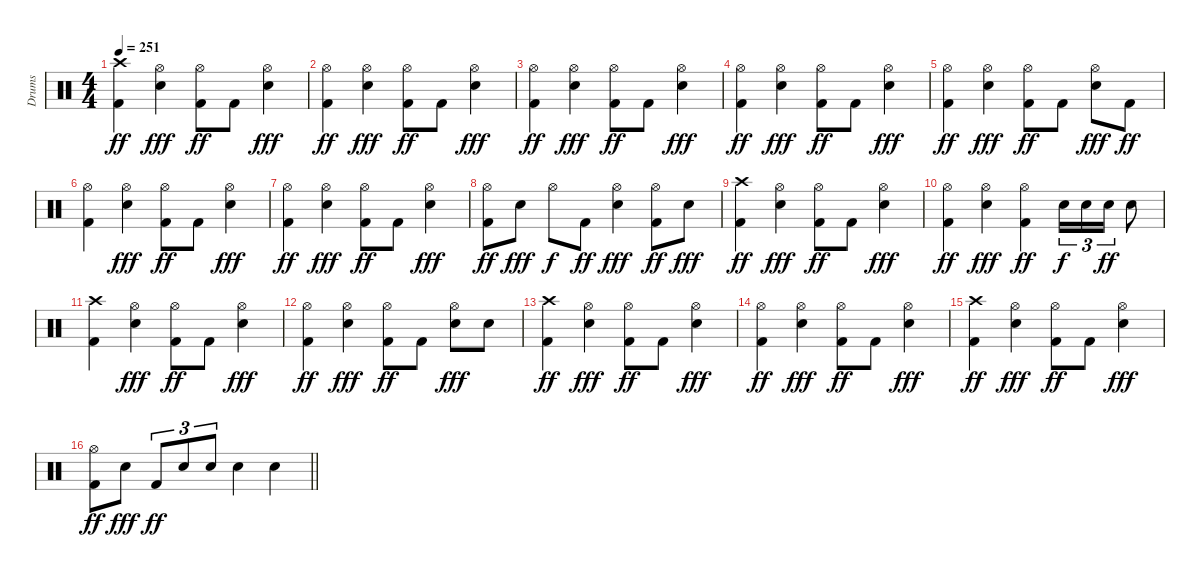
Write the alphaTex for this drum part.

\track ("Drums" "Drums") {instrument percussion}
\staff {score}
\articulation defaults
\ts (4 4)
\tempo 251
\clef neutral
\ks c
("Crash high (hit)" "Kick (hit) 2").4{dy ff} ("Hi-Hat (open)" "Electric Snare (hit)").4{dy fff} ("Hi-Hat (open)" "Kick (hit) 2").8{dy ff} "Kick (hit) 2".8 ("Hi-Hat (open)" "Electric Snare (hit)").4{dy fff} |
("Hi-Hat (open)" "Kick (hit) 2").4{dy ff} ("Hi-Hat (open)" "Electric Snare (hit)").4{dy fff} ("Hi-Hat (open)" "Kick (hit) 2").8{dy ff} "Kick (hit) 2".8 ("Hi-Hat (open)" "Electric Snare (hit)").4{dy fff} |
("Hi-Hat (open)" "Kick (hit) 2").4{dy ff} ("Hi-Hat (open)" "Electric Snare (hit)").4{dy fff} ("Hi-Hat (open)" "Kick (hit) 2").8{dy ff} "Kick (hit) 2".8 ("Hi-Hat (open)" "Electric Snare (hit)").4{dy fff} |
("Hi-Hat (open)" "Kick (hit) 2").4{dy ff} ("Hi-Hat (open)" "Electric Snare (hit)").4{dy fff} ("Hi-Hat (open)" "Kick (hit) 2").8{dy ff} "Kick (hit) 2".8 ("Hi-Hat (open)" "Electric Snare (hit)").4{dy fff} |
("Hi-Hat (open)" "Kick (hit) 2").4{dy ff} ("Hi-Hat (open)" "Electric Snare (hit)").4{dy fff} ("Hi-Hat (open)" "Kick (hit) 2").8{dy ff} "Kick (hit) 2".8 ("Hi-Hat (open)" "Electric Snare (hit)").8{dy fff} "Kick (hit) 2".8{dy ff} |
("Hi-Hat (open)" "Kick (hit) 2").4 ("Hi-Hat (open)" "Electric Snare (hit)").4{dy fff} ("Hi-Hat (open)" "Kick (hit) 2").8{dy ff} "Kick (hit) 2".8 ("Hi-Hat (open)" "Electric Snare (hit)").4{dy fff} |
("Hi-Hat (open)" "Kick (hit) 2").4{dy ff} ("Hi-Hat (open)" "Electric Snare (hit)").4{dy fff} ("Hi-Hat (open)" "Kick (hit) 2").8{dy ff} "Kick (hit) 2".8 ("Hi-Hat (open)" "Electric Snare (hit)").4{dy fff} |
("Hi-Hat (open)" "Kick (hit) 2").8{dy ff} "Electric Snare (hit)".8{dy fff} "Hi-Hat (open)".8{dy f} "Kick (hit) 2".8{dy ff} ("Hi-Hat (open)" "Electric Snare (hit)").4{dy fff} ("Hi-Hat (open)" "Kick (hit) 2").8{dy ff} "Electric Snare (hit)".8{dy fff} |
("Crash high (hit)" "Kick (hit) 2").4{dy ff} ("Hi-Hat (open)" "Electric Snare (hit)").4{dy fff} ("Hi-Hat (open)" "Kick (hit) 2").8{dy ff} "Kick (hit) 2".8 ("Hi-Hat (open)" "Electric Snare (hit)").4{dy fff} |
("Hi-Hat (open)" "Kick (hit) 2").4{dy ff} ("Hi-Hat (open)" "Electric Snare (hit)").4{dy fff} ("Hi-Hat (open)" "Kick (hit) 2").4{dy ff} "Electric Snare (hit)".16{tu (3 2) dy f} "Electric Snare (hit)".16{tu (3 2)} "Electric Snare (hit)".16{tu (3 2) dy ff} "Electric Snare (hit)".8 |
("Crash high (hit)" "Kick (hit) 2").4 ("Hi-Hat (open)" "Electric Snare (hit)").4{dy fff} ("Hi-Hat (open)" "Kick (hit) 2").8{dy ff} "Kick (hit) 2".8 ("Hi-Hat (open)" "Electric Snare (hit)").4{dy fff} |
("Hi-Hat (open)" "Kick (hit) 2").4{dy ff} ("Hi-Hat (open)" "Electric Snare (hit)").4{dy fff} ("Hi-Hat (open)" "Kick (hit) 2").8{dy ff} "Kick (hit) 2".8 ("Hi-Hat (open)" "Electric Snare (hit)").8{dy fff} "Electric Snare (hit)".8 |
("Crash high (hit)" "Kick (hit) 2").4{dy ff} ("Hi-Hat (open)" "Electric Snare (hit)").4{dy fff} ("Hi-Hat (open)" "Kick (hit) 2").8{dy ff} "Kick (hit) 2".8 ("Hi-Hat (open)" "Electric Snare (hit)").4{dy fff} |
("Hi-Hat (open)" "Kick (hit) 2").4{dy ff} ("Hi-Hat (open)" "Electric Snare (hit)").4{dy fff} ("Hi-Hat (open)" "Kick (hit) 2").8{dy ff} "Kick (hit) 2".8 ("Hi-Hat (open)" "Electric Snare (hit)").4{dy fff} |
("Crash high (hit)" "Kick (hit) 2").4{dy ff} ("Hi-Hat (open)" "Electric Snare (hit)").4{dy fff} ("Hi-Hat (open)" "Kick (hit) 2").8{dy ff} "Kick (hit) 2".8 ("Hi-Hat (open)" "Electric Snare (hit)").4{dy fff} |
\barLineRight lightlight
("Hi-Hat (open)" "Kick (hit) 2").8{dy ff} "Electric Snare (hit)".8{dy fff} "Kick (hit) 2".8{tu (3 2) dy ff} "Electric Snare (hit)".8{tu (3 2)} "Electric Snare (hit)".8{tu (3 2)} "Electric Snare (hit)".4 "Electric Snare (hit)".4
